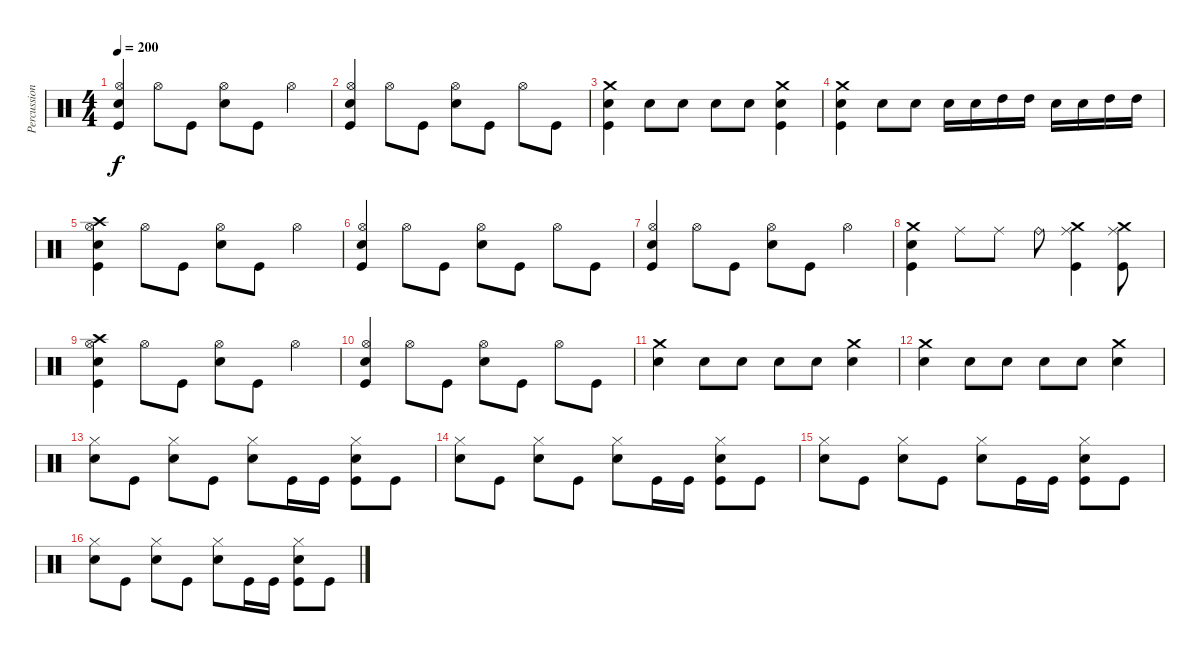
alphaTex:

\track ("Percussion" "Percussion") {instrument percussion}
\staff {score}
\articulation defaults
\ts (4 4)
\tempo 200
\clef neutral
\ks c
("Snare (hit) 2" "Hi-Hat (open)" "Kick (hit)").4{dy f} "Hi-Hat (open)".8 "Kick (hit)".8 ("Snare (hit) 2" "Hi-Hat (open)").8 "Kick (hit)".8 "Hi-Hat (open)".4 |
("Snare (hit) 2" "Hi-Hat (open)" "Kick (hit)").4 "Hi-Hat (open)".8 "Kick (hit)".8 ("Snare (hit) 2" "Hi-Hat (open)").8 "Kick (hit)".8 "Hi-Hat (open)".8 "Kick (hit)".8 |
("Crash medium (hit)" "Snare (hit) 2" "Kick (hit)").4 "Snare (hit) 2".8 "Snare (hit) 2".8 "Snare (hit) 2".8 "Snare (hit) 2".8 ("Crash medium (hit)" "Snare (hit) 2" "Kick (hit)").4 |
("Crash medium (hit)" "Snare (hit) 2" "Kick (hit)").4 "Snare (hit) 2".8 "Snare (hit) 2".8 "Snare (hit) 2".16 "Snare (hit) 2".16 "High Tom (hit)".16 "High Tom (hit)".16 "Snare (hit) 2".16 "Snare (hit) 2".16 "High Tom (hit)".16 "High Tom (hit)".16 |
("Crash high (hit)" "Snare (hit) 2" "Hi-Hat (open)" "Kick (hit)").4 "Hi-Hat (open)".8 "Kick (hit)".8 ("Snare (hit) 2" "Hi-Hat (open)").8 "Kick (hit)".8 "Hi-Hat (open)".4 |
("Snare (hit) 2" "Hi-Hat (open)" "Kick (hit)").4 "Hi-Hat (open)".8 "Kick (hit)".8 ("Snare (hit) 2" "Hi-Hat (open)").8 "Kick (hit)".8 "Hi-Hat (open)".8 "Kick (hit)".8 |
("Snare (hit) 2" "Hi-Hat (open)" "Kick (hit)").4 "Hi-Hat (open)".8 "Kick (hit)".8 ("Snare (hit) 2" "Hi-Hat (open)").8 "Kick (hit)".8 "Hi-Hat (open)".4 |
("Crash medium (hit)" "Snare (hit) 2" "Kick (hit)").4 "Ride (middle)".8 "Ride (middle)".8 "Ride (bell)".8 ("Crash medium (hit)" "Ride (middle)" "Kick (hit)").4 ("Crash medium (hit)" "Ride (middle)" "Kick (hit)").8 |
("Crash high (hit)" "Snare (hit) 2" "Hi-Hat (open)" "Kick (hit)").4 "Hi-Hat (open)".8 "Kick (hit)".8 ("Snare (hit) 2" "Hi-Hat (open)").8 "Kick (hit)".8 "Hi-Hat (open)".4 |
("Snare (hit) 2" "Hi-Hat (open)" "Kick (hit)").4 "Hi-Hat (open)".8 "Kick (hit)".8 ("Snare (hit) 2" "Hi-Hat (open)").8 "Kick (hit)".8 "Hi-Hat (open)".8 "Kick (hit)".8 |
("Crash medium (hit)" "Snare (hit) 2").4 "Snare (hit) 2".8 "Snare (hit) 2".8 "Snare (hit) 2".8 "Snare (hit) 2".8 ("Crash medium (hit)" "Snare (hit) 2").4 |
("Crash medium (hit)" "Snare (hit) 2").4 "Snare (hit) 2".8 "Snare (hit) 2".8 "Snare (hit) 2".8 "Snare (hit) 2".8 ("Crash medium (hit)" "Snare (hit) 2").4 |
("Snare (hit) 2" "Hi-Hat (closed)").8 "Kick (hit)".8 ("Snare (hit) 2" "Hi-Hat (closed)").8 "Kick (hit)".8 ("Snare (hit) 2" "Hi-Hat (closed)").8 "Kick (hit)".16 "Kick (hit)".16 ("Snare (hit) 2" "Hi-Hat (closed)" "Kick (hit)").8 "Kick (hit)".8 |
("Snare (hit) 2" "Hi-Hat (closed)").8 "Kick (hit)".8 ("Snare (hit) 2" "Hi-Hat (closed)").8 "Kick (hit)".8 ("Snare (hit) 2" "Hi-Hat (closed)").8 "Kick (hit)".16 "Kick (hit)".16 ("Snare (hit) 2" "Hi-Hat (closed)" "Kick (hit)").8 "Kick (hit)".8 |
("Snare (hit) 2" "Hi-Hat (closed)").8 "Kick (hit)".8 ("Snare (hit) 2" "Hi-Hat (closed)").8 "Kick (hit)".8 ("Snare (hit) 2" "Hi-Hat (closed)").8 "Kick (hit)".16 "Kick (hit)".16 ("Snare (hit) 2" "Hi-Hat (closed)" "Kick (hit)").8 "Kick (hit)".8 |
("Snare (hit) 2" "Hi-Hat (closed)").8 "Kick (hit)".8 ("Snare (hit) 2" "Hi-Hat (closed)").8 "Kick (hit)".8 ("Snare (hit) 2" "Hi-Hat (closed)").8 "Kick (hit)".16 "Kick (hit)".16 ("Snare (hit) 2" "Hi-Hat (closed)" "Kick (hit)").8 "Kick (hit)".8
